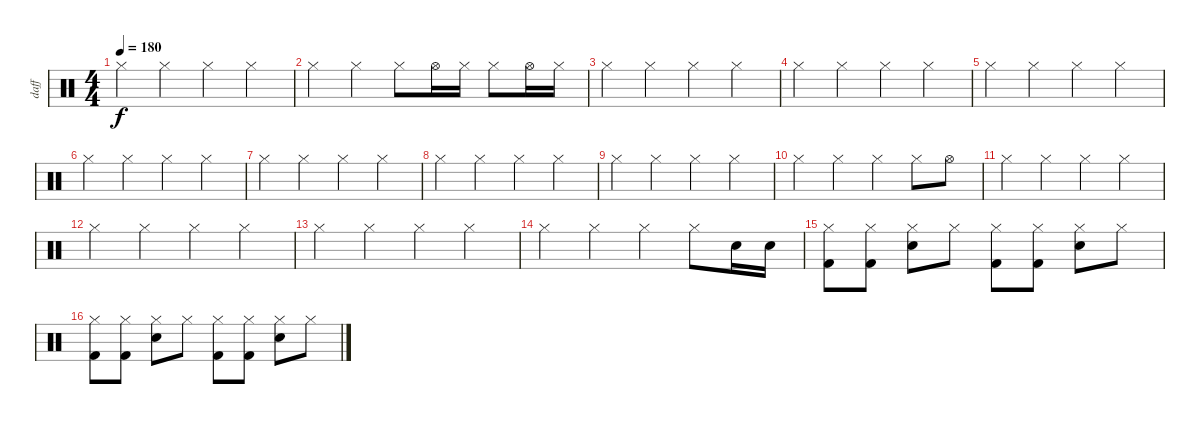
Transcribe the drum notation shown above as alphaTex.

\track ("daff" "daff") {instrument percussion}
\staff {score}
\articulation defaults
\ts (4 4)
\tempo 180
\clef neutral
\ks c "Hi-Hat (closed)".4{dy f} "Hi-Hat (closed)".4 "Hi-Hat (closed)".4 "Hi-Hat (closed)".4
|
"Hi-Hat (closed)".4 "Hi-Hat (closed)".4 "Hi-Hat (closed)".8 "Hi-Hat (open)".16 "Hi-Hat (closed)".16 "Hi-Hat (closed)".8 "Hi-Hat (open)".16 "Hi-Hat (closed)".16 |
"Hi-Hat (closed)".4 "Hi-Hat (closed)".4 "Hi-Hat (closed)".4 "Hi-Hat (closed)".4 |
"Hi-Hat (closed)".4 "Hi-Hat (closed)".4 "Hi-Hat (closed)".4 "Hi-Hat (closed)".4 |
"Hi-Hat (closed)".4 "Hi-Hat (closed)".4 "Hi-Hat (closed)".4 "Hi-Hat (closed)".4 |
"Hi-Hat (closed)".4 "Hi-Hat (closed)".4 "Hi-Hat (closed)".4 "Hi-Hat (closed)".4 |
"Hi-Hat (closed)".4 "Hi-Hat (closed)".4 "Hi-Hat (closed)".4 "Hi-Hat (closed)".4 |
"Hi-Hat (closed)".4 "Hi-Hat (closed)".4 "Hi-Hat (closed)".4 "Hi-Hat (closed)".4 |
"Hi-Hat (closed)".4 "Hi-Hat (closed)".4 "Hi-Hat (closed)".4 "Hi-Hat (closed)".4 |
"Hi-Hat (closed)".4 "Hi-Hat (closed)".4 "Hi-Hat (closed)".4 "Hi-Hat (closed)".8 "Hi-Hat (open)".8 |
"Hi-Hat (closed)".4 "Hi-Hat (closed)".4 "Hi-Hat (closed)".4 "Hi-Hat (closed)".4 |
"Hi-Hat (closed)".4 "Hi-Hat (closed)".4 "Hi-Hat (closed)".4 "Hi-Hat (closed)".4 |
"Hi-Hat (closed)".4 "Hi-Hat (closed)".4 "Hi-Hat (closed)".4 "Hi-Hat (closed)".4 |
"Hi-Hat (closed)".4 "Hi-Hat (closed)".4 "Hi-Hat (closed)".4 "Hi-Hat (closed)".8 "Electric Snare (hit)".16 "Electric Snare (hit)".16 |
("Hi-Hat (closed)" "Kick (hit) 2").8 ("Hi-Hat (closed)" "Kick (hit) 2").8 ("Hi-Hat (closed)" "Electric Snare (hit)").8 "Hi-Hat (closed)".8 ("Hi-Hat (closed)" "Kick (hit) 2").8 ("Hi-Hat (closed)" "Kick (hit) 2").8 ("Hi-Hat (closed)" "Electric Snare (hit)").8 "Hi-Hat (closed)".8 |
("Hi-Hat (closed)" "Kick (hit) 2").8 ("Hi-Hat (closed)" "Kick (hit) 2").8 ("Hi-Hat (closed)" "Electric Snare (hit)").8 "Hi-Hat (closed)".8 ("Hi-Hat (closed)" "Kick (hit) 2").8 ("Hi-Hat (closed)" "Kick (hit) 2").8 ("Hi-Hat (closed)" "Electric Snare (hit)").8 "Hi-Hat (closed)".8
